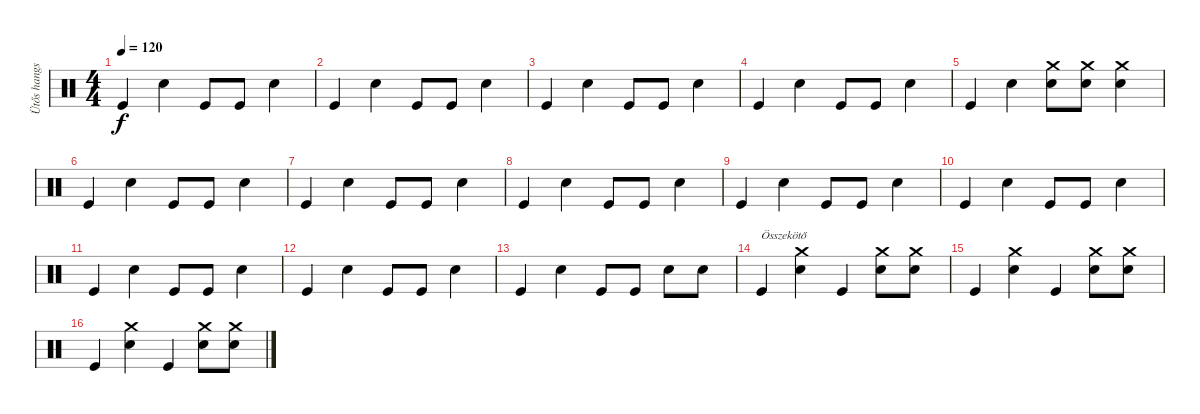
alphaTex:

\track ("Ütős hangszer" "Ütős hangs") {instrument percussion}
\staff {score}
\articulation defaults
\ts (4 4)
\tempo 120
\clef neutral
\ks c "Kick (hit)".4{dy f} "Snare (hit) 2".4 "Kick (hit)".8 "Kick (hit)".8 "Snare (hit) 2".4
|
"Kick (hit)".4 "Snare (hit) 2".4 "Kick (hit)".8 "Kick (hit)".8 "Snare (hit) 2".4 |
"Kick (hit)".4 "Snare (hit) 2".4 "Kick (hit)".8 "Kick (hit)".8 "Snare (hit) 2".4 |
"Kick (hit)".4 "Snare (hit) 2".4 "Kick (hit)".8 "Kick (hit)".8 "Snare (hit) 2".4 |
"Kick (hit)".4 "Snare (hit) 2".4 ("Crash medium (hit)" "Snare (hit) 2").8 ("Crash medium (hit)" "Snare (hit) 2").8 ("Crash medium (hit)" "Snare (hit) 2").4 |
"Kick (hit)".4 "Snare (hit) 2".4 "Kick (hit)".8 "Kick (hit)".8 "Snare (hit) 2".4 |
"Kick (hit)".4 "Snare (hit) 2".4 "Kick (hit)".8 "Kick (hit)".8 "Snare (hit) 2".4 |
"Kick (hit)".4 "Snare (hit) 2".4 "Kick (hit)".8 "Kick (hit)".8 "Snare (hit) 2".4 |
"Kick (hit)".4 "Snare (hit) 2".4 "Kick (hit)".8 "Kick (hit)".8 "Snare (hit) 2".4 |
"Kick (hit)".4 "Snare (hit) 2".4 "Kick (hit)".8 "Kick (hit)".8 "Snare (hit) 2".4 |
"Kick (hit)".4 "Snare (hit) 2".4 "Kick (hit)".8 "Kick (hit)".8 "Snare (hit) 2".4 |
"Kick (hit)".4 "Snare (hit) 2".4 "Kick (hit)".8 "Kick (hit)".8 "Snare (hit) 2".4 |
"Kick (hit)".4 "Snare (hit) 2".4 "Kick (hit)".8 "Kick (hit)".8 "Snare (hit) 2".8 "Snare (hit) 2".8 |
"Kick (hit)".4{txt "Összekötő"} ("Crash medium (hit)" "Snare (hit) 2").4 "Kick (hit)".4 ("Crash medium (hit)" "Snare (hit) 2").8 ("Crash medium (hit)" "Snare (hit) 2").8 |
"Kick (hit)".4 ("Crash medium (hit)" "Snare (hit) 2").4 "Kick (hit)".4 ("Crash medium (hit)" "Snare (hit) 2").8 ("Crash medium (hit)" "Snare (hit) 2").8 |
"Kick (hit)".4 ("Crash medium (hit)" "Snare (hit) 2").4 "Kick (hit)".4 ("Crash medium (hit)" "Snare (hit) 2").8 ("Crash medium (hit)" "Snare (hit) 2").8
